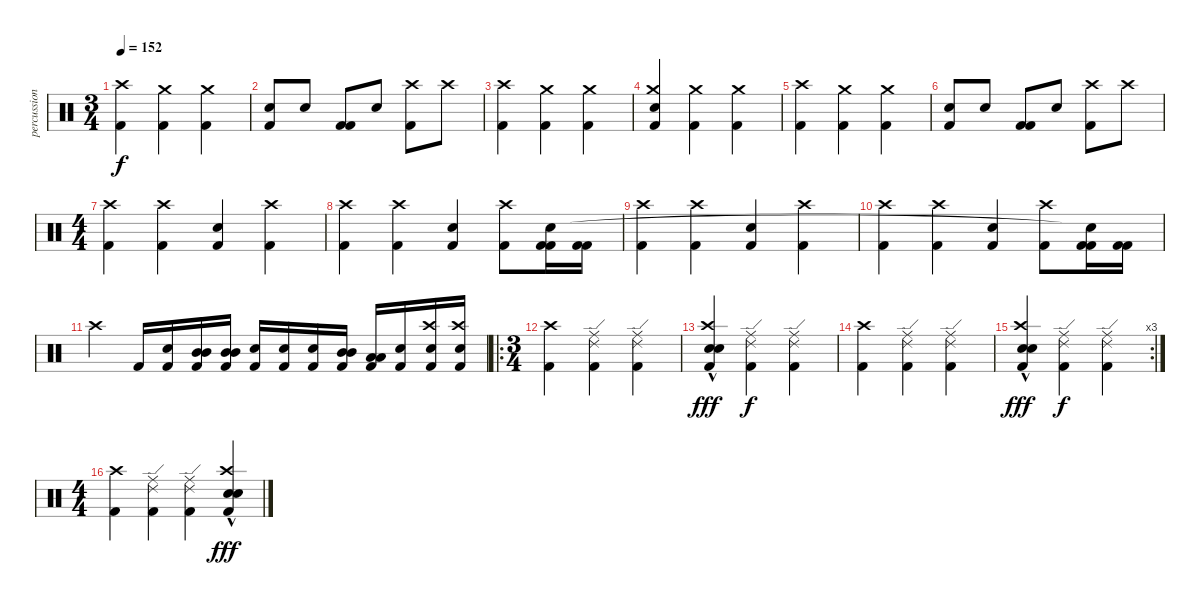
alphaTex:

\track ("percussion" "percussion") {instrument percussion bank 177}
\staff {score}
\articulation defaults
\ts (3 4)
\tempo 152
\clef neutral
\ks c
("Kick (hit) 2" "Crash high (hit)").4{dy f} ("Kick (hit) 2" "Crash medium (hit)").4 ("Kick (hit) 2" "Crash medium (hit)").4 |
("Kick (hit) 2" "Electric Snare (hit)").8 "Snare (hit) 2".8 ("Kick (hit) 2" "Kick (hit) 2").8 "Electric Snare (hit)".8 ("Kick (hit) 2" "Crash high (hit)").8 "Crash high (hit)".8 |
("Kick (hit) 2" "Crash high (hit)").4 ("Kick (hit) 2" "Crash medium (hit)").4 ("Kick (hit) 2" "Crash medium (hit)").4 |
("Kick (hit) 2" "Electric Snare (hit)" "Crash medium (hit)").4 ("Kick (hit) 2" "Crash medium (hit)").4 ("Kick (hit) 2" "Crash medium (hit)").4 |
("Kick (hit) 2" "Crash high (hit)").4 ("Kick (hit) 2" "Crash medium (hit)").4 ("Kick (hit) 2" "Crash medium (hit)").4 |
("Kick (hit) 2" "Electric Snare (hit)").8 "Snare (hit) 2".8 ("Kick (hit) 2" "Kick (hit) 2").8 "Electric Snare (hit)".8 ("Kick (hit) 2" "Crash high (hit)").8 "Crash high (hit)".8 |
\ts (4 4)
("Kick (hit) 2" "Crash high (hit)").4 ("Kick (hit) 2" "Crash high (hit)").4 ("Kick (hit) 2" "Electric Snare (hit)").4 ("Kick (hit) 2" "Crash high (hit)").4 |
("Kick (hit) 2" "Crash high (hit)").4 ("Kick (hit) 2" "Crash high (hit)").4 ("Kick (hit) 2" "Electric Snare (hit)").4 ("Kick (hit) 2" "Crash high (hit)").8 ("Kick (hit) 2" "Kick (hit) 2" "Snare (hit)").16 ("Kick (hit) 2" "Kick (hit) 2").16 |
("Kick (hit) 2" "Crash high (hit)").4 ("Kick (hit) 2" "Crash high (hit)").4 ("Kick (hit) 2" "Electric Snare (hit)").4 ("Kick (hit) 2" "Crash high (hit)").4 |
("Kick (hit) 2" "Crash high (hit)").4 ("Kick (hit) 2" "Crash high (hit)").4 ("Kick (hit) 2" "Electric Snare (hit)").4 ("Kick (hit) 2" "Crash high (hit)").8 ("Kick (hit) 2" "Kick (hit) 2" "Snare (hit)"{t}).16 ("Kick (hit) 2" "Kick (hit) 2").16 |
"Crash high (hit)".4 "Kick (hit) 2".16 ("Kick (hit) 2" "Electric Snare (hit)").16 ("Kick (hit) 2" "Mid Tom (hit)" "Mid Tom (hit)").16 ("Kick (hit) 2" "Mid Tom (hit)" "Mid Tom (hit)").16 ("Kick (hit) 2" "Electric Snare (hit)").16 ("Kick (hit) 2" "Electric Snare (hit)").16 ("Kick (hit) 2" "Electric Snare (hit)").16 ("Kick (hit) 2" "Mid Tom (hit)" "Mid Tom (hit)").16 ("Kick (hit) 2" "Low Tom (hit)" "Low Tom (hit)").16 ("Kick (hit) 2" "Snare (hit) 2").16 ("Kick (hit) 2" "Electric Snare (hit)" "Crash high (hit)").16 ("Kick (hit) 2" "Electric Snare (hit)" "Crash high (hit)").16 |
\ro
\ts (3 4)
("Kick (hit) 2" "Crash high (hit)").4 ("Kick (hit) 2" "Ride (edge) 2" "Ride (middle)").4 ("Kick (hit) 2" "Ride (edge) 2" "Ride (middle)").4 |
("Kick (hit) 2" "Electric Snare (hit)"{hac} "Electric Snare (hit)"{hac} "Crash high (hit)").4{dy fff} ("Kick (hit) 2" "Ride (edge) 2" "Ride (middle)").4{dy f} ("Kick (hit) 2" "Ride (edge) 2" "Ride (middle)").4 |
("Kick (hit) 2" "Crash high (hit)").4 ("Kick (hit) 2" "Ride (edge) 2" "Ride (middle)").4 ("Kick (hit) 2" "Ride (edge) 2" "Ride (middle)").4 |
\rc 3
("Kick (hit) 2" "Electric Snare (hit)"{hac} "Electric Snare (hit)"{hac} "Crash high (hit)").4{dy fff} ("Kick (hit) 2" "Ride (edge) 2" "Ride (middle)").4{dy f} ("Kick (hit) 2" "Ride (edge) 2" "Ride (middle)").4 |
\ts (4 4)
("Kick (hit) 2" "Crash high (hit)").4 ("Kick (hit) 2" "Ride (edge) 2" "Ride (middle)").4 ("Kick (hit) 2" "Ride (edge) 2" "Ride (middle)").4 ("Kick (hit) 2" "Electric Snare (hit)"{hac} "Electric Snare (hit)"{hac} "Crash high (hit)").4{dy fff}
